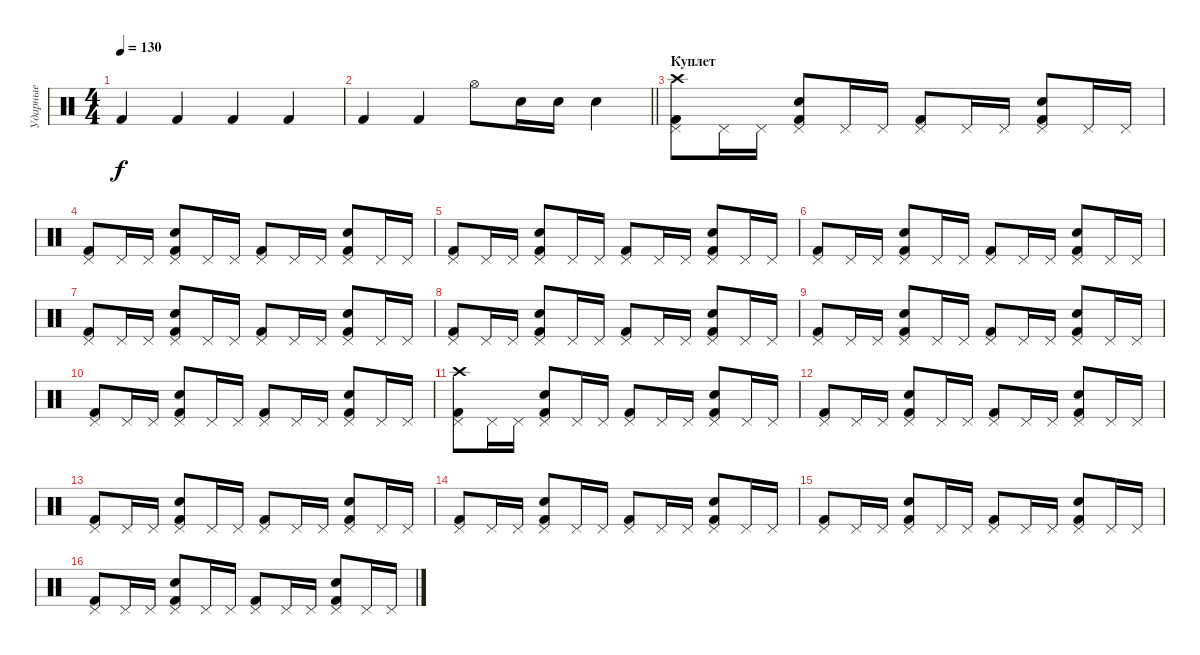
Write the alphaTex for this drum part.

\track ("Ударные" "Ударные") {instrument percussion}
\staff {score}
\articulation defaults
\ts (4 4)
\tempo 130
\clef neutral
\ks c "Kick (hit) 2".4{dy f} "Kick (hit) 2".4 "Kick (hit) 2".4 "Kick (hit) 2".4
|
\barLineRight lightlight "Kick (hit) 2".4 "Kick (hit) 2".4 "Hi-Hat (open)".8 "Electric Snare (hit)".16 "Electric Snare (hit)".16 "Electric Snare (hit)".4
|
\section ("" "Куплет")
("Pedal Hi-Hat (hit)" "Crash high (hit)" "Kick (hit) 2").8 "Pedal Hi-Hat (hit)".16 "Pedal Hi-Hat (hit)".16 ("Pedal Hi-Hat (hit)" "Electric Snare (hit)" "Kick (hit) 2").8 "Pedal Hi-Hat (hit)".16 "Pedal Hi-Hat (hit)".16 ("Pedal Hi-Hat (hit)" "Kick (hit) 2").8 "Pedal Hi-Hat (hit)".16 "Pedal Hi-Hat (hit)".16 ("Pedal Hi-Hat (hit)" "Electric Snare (hit)" "Kick (hit) 2").8 "Pedal Hi-Hat (hit)".16 "Pedal Hi-Hat (hit)".16 |
("Pedal Hi-Hat (hit)" "Kick (hit) 2").8 "Pedal Hi-Hat (hit)".16 "Pedal Hi-Hat (hit)".16 ("Pedal Hi-Hat (hit)" "Electric Snare (hit)" "Kick (hit) 2").8 "Pedal Hi-Hat (hit)".16 "Pedal Hi-Hat (hit)".16 ("Pedal Hi-Hat (hit)" "Kick (hit) 2").8 "Pedal Hi-Hat (hit)".16 "Pedal Hi-Hat (hit)".16 ("Pedal Hi-Hat (hit)" "Electric Snare (hit)" "Kick (hit) 2").8 "Pedal Hi-Hat (hit)".16 "Pedal Hi-Hat (hit)".16 |
("Pedal Hi-Hat (hit)" "Kick (hit) 2").8 "Pedal Hi-Hat (hit)".16 "Pedal Hi-Hat (hit)".16 ("Pedal Hi-Hat (hit)" "Electric Snare (hit)" "Kick (hit) 2").8 "Pedal Hi-Hat (hit)".16 "Pedal Hi-Hat (hit)".16 ("Pedal Hi-Hat (hit)" "Kick (hit) 2").8 "Pedal Hi-Hat (hit)".16 "Pedal Hi-Hat (hit)".16 ("Pedal Hi-Hat (hit)" "Electric Snare (hit)" "Kick (hit) 2").8 "Pedal Hi-Hat (hit)".16 "Pedal Hi-Hat (hit)".16 |
("Pedal Hi-Hat (hit)" "Kick (hit) 2").8 "Pedal Hi-Hat (hit)".16 "Pedal Hi-Hat (hit)".16 ("Pedal Hi-Hat (hit)" "Electric Snare (hit)" "Kick (hit) 2").8 "Pedal Hi-Hat (hit)".16 "Pedal Hi-Hat (hit)".16 ("Pedal Hi-Hat (hit)" "Kick (hit) 2").8 "Pedal Hi-Hat (hit)".16 "Pedal Hi-Hat (hit)".16 ("Pedal Hi-Hat (hit)" "Electric Snare (hit)" "Kick (hit) 2").8 "Pedal Hi-Hat (hit)".16 "Pedal Hi-Hat (hit)".16 |
("Pedal Hi-Hat (hit)" "Kick (hit) 2").8 "Pedal Hi-Hat (hit)".16 "Pedal Hi-Hat (hit)".16 ("Pedal Hi-Hat (hit)" "Electric Snare (hit)" "Kick (hit) 2").8 "Pedal Hi-Hat (hit)".16 "Pedal Hi-Hat (hit)".16 ("Pedal Hi-Hat (hit)" "Kick (hit) 2").8 "Pedal Hi-Hat (hit)".16 "Pedal Hi-Hat (hit)".16 ("Pedal Hi-Hat (hit)" "Electric Snare (hit)" "Kick (hit) 2").8 "Pedal Hi-Hat (hit)".16 "Pedal Hi-Hat (hit)".16 |
("Pedal Hi-Hat (hit)" "Kick (hit) 2").8 "Pedal Hi-Hat (hit)".16 "Pedal Hi-Hat (hit)".16 ("Pedal Hi-Hat (hit)" "Electric Snare (hit)" "Kick (hit) 2").8 "Pedal Hi-Hat (hit)".16 "Pedal Hi-Hat (hit)".16 ("Pedal Hi-Hat (hit)" "Kick (hit) 2").8 "Pedal Hi-Hat (hit)".16 "Pedal Hi-Hat (hit)".16 ("Pedal Hi-Hat (hit)" "Electric Snare (hit)" "Kick (hit) 2").8 "Pedal Hi-Hat (hit)".16 "Pedal Hi-Hat (hit)".16 |
("Pedal Hi-Hat (hit)" "Kick (hit) 2").8 "Pedal Hi-Hat (hit)".16 "Pedal Hi-Hat (hit)".16 ("Pedal Hi-Hat (hit)" "Electric Snare (hit)" "Kick (hit) 2").8 "Pedal Hi-Hat (hit)".16 "Pedal Hi-Hat (hit)".16 ("Pedal Hi-Hat (hit)" "Kick (hit) 2").8 "Pedal Hi-Hat (hit)".16 "Pedal Hi-Hat (hit)".16 ("Pedal Hi-Hat (hit)" "Electric Snare (hit)" "Kick (hit) 2").8 "Pedal Hi-Hat (hit)".16 "Pedal Hi-Hat (hit)".16 |
("Pedal Hi-Hat (hit)" "Kick (hit) 2").8 "Pedal Hi-Hat (hit)".16 "Pedal Hi-Hat (hit)".16 ("Pedal Hi-Hat (hit)" "Electric Snare (hit)" "Kick (hit) 2").8 "Pedal Hi-Hat (hit)".16 "Pedal Hi-Hat (hit)".16 ("Pedal Hi-Hat (hit)" "Kick (hit) 2").8 "Pedal Hi-Hat (hit)".16 "Pedal Hi-Hat (hit)".16 ("Pedal Hi-Hat (hit)" "Electric Snare (hit)" "Kick (hit) 2").8 "Pedal Hi-Hat (hit)".16 "Pedal Hi-Hat (hit)".16 |
("Pedal Hi-Hat (hit)" "Crash high (hit)" "Kick (hit) 2").8 "Pedal Hi-Hat (hit)".16 "Pedal Hi-Hat (hit)".16 ("Pedal Hi-Hat (hit)" "Electric Snare (hit)" "Kick (hit) 2").8 "Pedal Hi-Hat (hit)".16 "Pedal Hi-Hat (hit)".16 ("Pedal Hi-Hat (hit)" "Kick (hit) 2").8 "Pedal Hi-Hat (hit)".16 "Pedal Hi-Hat (hit)".16 ("Pedal Hi-Hat (hit)" "Electric Snare (hit)" "Kick (hit) 2").8 "Pedal Hi-Hat (hit)".16 "Pedal Hi-Hat (hit)".16 |
("Pedal Hi-Hat (hit)" "Kick (hit) 2").8 "Pedal Hi-Hat (hit)".16 "Pedal Hi-Hat (hit)".16 ("Pedal Hi-Hat (hit)" "Electric Snare (hit)" "Kick (hit) 2").8 "Pedal Hi-Hat (hit)".16 "Pedal Hi-Hat (hit)".16 ("Pedal Hi-Hat (hit)" "Kick (hit) 2").8 "Pedal Hi-Hat (hit)".16 "Pedal Hi-Hat (hit)".16 ("Pedal Hi-Hat (hit)" "Electric Snare (hit)" "Kick (hit) 2").8 "Pedal Hi-Hat (hit)".16 "Pedal Hi-Hat (hit)".16 |
("Pedal Hi-Hat (hit)" "Kick (hit) 2").8 "Pedal Hi-Hat (hit)".16 "Pedal Hi-Hat (hit)".16 ("Pedal Hi-Hat (hit)" "Electric Snare (hit)" "Kick (hit) 2").8 "Pedal Hi-Hat (hit)".16 "Pedal Hi-Hat (hit)".16 ("Pedal Hi-Hat (hit)" "Kick (hit) 2").8 "Pedal Hi-Hat (hit)".16 "Pedal Hi-Hat (hit)".16 ("Pedal Hi-Hat (hit)" "Electric Snare (hit)" "Kick (hit) 2").8 "Pedal Hi-Hat (hit)".16 "Pedal Hi-Hat (hit)".16 |
("Pedal Hi-Hat (hit)" "Kick (hit) 2").8 "Pedal Hi-Hat (hit)".16 "Pedal Hi-Hat (hit)".16 ("Pedal Hi-Hat (hit)" "Electric Snare (hit)" "Kick (hit) 2").8 "Pedal Hi-Hat (hit)".16 "Pedal Hi-Hat (hit)".16 ("Pedal Hi-Hat (hit)" "Kick (hit) 2").8 "Pedal Hi-Hat (hit)".16 "Pedal Hi-Hat (hit)".16 ("Pedal Hi-Hat (hit)" "Electric Snare (hit)" "Kick (hit) 2").8 "Pedal Hi-Hat (hit)".16 "Pedal Hi-Hat (hit)".16 |
("Pedal Hi-Hat (hit)" "Kick (hit) 2").8 "Pedal Hi-Hat (hit)".16 "Pedal Hi-Hat (hit)".16 ("Pedal Hi-Hat (hit)" "Electric Snare (hit)" "Kick (hit) 2").8 "Pedal Hi-Hat (hit)".16 "Pedal Hi-Hat (hit)".16 ("Pedal Hi-Hat (hit)" "Kick (hit) 2").8 "Pedal Hi-Hat (hit)".16 "Pedal Hi-Hat (hit)".16 ("Pedal Hi-Hat (hit)" "Electric Snare (hit)" "Kick (hit) 2").8 "Pedal Hi-Hat (hit)".16 "Pedal Hi-Hat (hit)".16 |
("Pedal Hi-Hat (hit)" "Kick (hit) 2").8 "Pedal Hi-Hat (hit)".16 "Pedal Hi-Hat (hit)".16 ("Pedal Hi-Hat (hit)" "Electric Snare (hit)" "Kick (hit) 2").8 "Pedal Hi-Hat (hit)".16 "Pedal Hi-Hat (hit)".16 ("Pedal Hi-Hat (hit)" "Kick (hit) 2").8 "Pedal Hi-Hat (hit)".16 "Pedal Hi-Hat (hit)".16 ("Pedal Hi-Hat (hit)" "Electric Snare (hit)" "Kick (hit) 2").8 "Pedal Hi-Hat (hit)".16 "Pedal Hi-Hat (hit)".16
